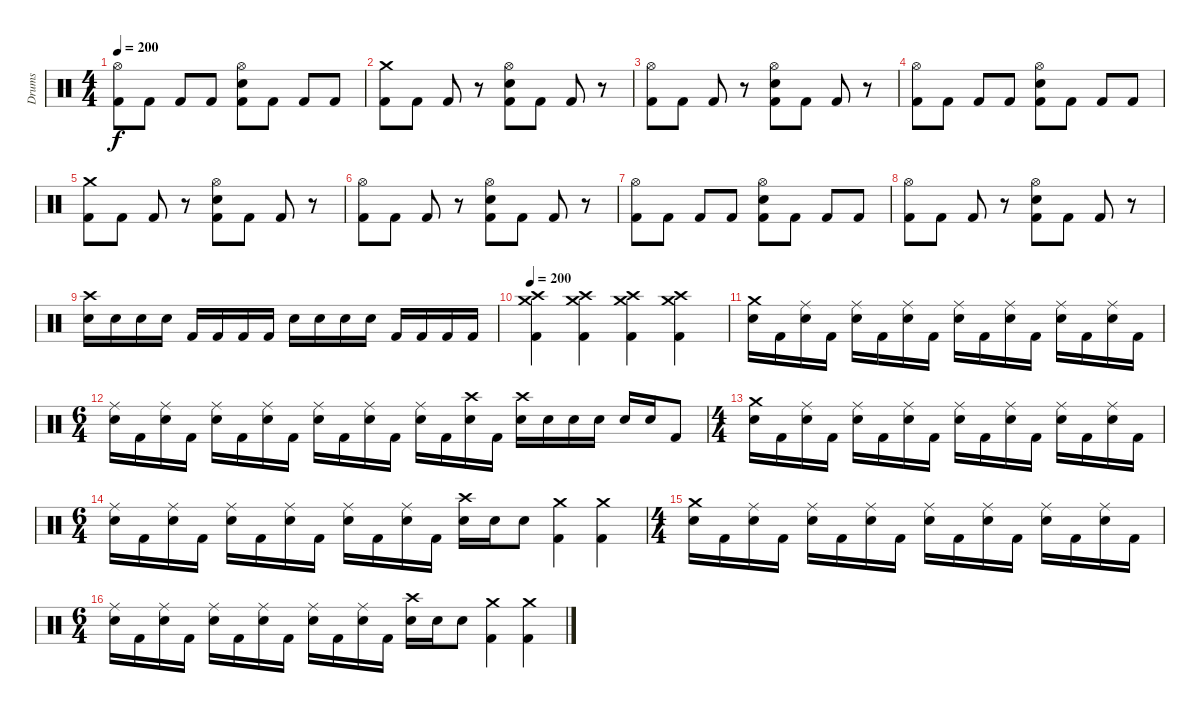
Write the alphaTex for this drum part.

\track ("Drums" "Drums") {instrument percussion}
\staff {score}
\articulation defaults
\ts (4 4)
\tempo 200
\clef neutral
\ks c
("Hi-Hat (open)" "Kick (hit) 2").8{dy f} "Kick (hit) 2".8 "Kick (hit) 2".8 "Kick (hit) 2".8 ("Hi-Hat (open)" "Electric Snare (hit)" "Kick (hit) 2").8 "Kick (hit) 2".8 "Kick (hit) 2".8 "Kick (hit) 2".8 |
("Crash medium (hit)" "Kick (hit) 2").8 "Kick (hit) 2".8 "Kick (hit) 2".8 r.8 ("Hi-Hat (open)" "Electric Snare (hit)" "Kick (hit) 2").8 "Kick (hit) 2".8 "Kick (hit) 2".8 r.8 |
("Hi-Hat (open)" "Kick (hit) 2").8 "Kick (hit) 2".8 "Kick (hit) 2".8 r.8 ("Hi-Hat (open)" "Electric Snare (hit)" "Kick (hit) 2").8 "Kick (hit) 2".8 "Kick (hit) 2".8 r.8 |
("Hi-Hat (open)" "Kick (hit) 2").8 "Kick (hit) 2".8 "Kick (hit) 2".8 "Kick (hit) 2".8 ("Hi-Hat (open)" "Electric Snare (hit)" "Kick (hit) 2").8 "Kick (hit) 2".8 "Kick (hit) 2".8 "Kick (hit) 2".8 |
("Crash medium (hit)" "Kick (hit) 2").8 "Kick (hit) 2".8 "Kick (hit) 2".8 r.8 ("Hi-Hat (open)" "Electric Snare (hit)" "Kick (hit) 2").8 "Kick (hit) 2".8 "Kick (hit) 2".8 r.8 |
("Hi-Hat (open)" "Kick (hit) 2").8 "Kick (hit) 2".8 "Kick (hit) 2".8 r.8 ("Hi-Hat (open)" "Electric Snare (hit)" "Kick (hit) 2").8 "Kick (hit) 2".8 "Kick (hit) 2".8 r.8 |
("Hi-Hat (open)" "Kick (hit) 2").8 "Kick (hit) 2".8 "Kick (hit) 2".8 "Kick (hit) 2".8 ("Hi-Hat (open)" "Electric Snare (hit)" "Kick (hit) 2").8 "Kick (hit) 2".8 "Kick (hit) 2".8 "Kick (hit) 2".8 |
("Hi-Hat (open)" "Kick (hit) 2").8 "Kick (hit) 2".8 "Kick (hit) 2".8 r.8 ("Hi-Hat (open)" "Electric Snare (hit)" "Kick (hit) 2").8 "Kick (hit) 2".8 "Kick (hit) 2".8 r.8 |
("Crash high (hit)" "Electric Snare (hit)").16 "Electric Snare (hit)".16 "Electric Snare (hit)".16 "Electric Snare (hit)".16 "Kick (hit) 2".16 "Kick (hit) 2".16 "Kick (hit) 2".16 "Kick (hit) 2".16 "Electric Snare (hit)".16 "Electric Snare (hit)".16 "Electric Snare (hit)".16 "Electric Snare (hit)".16 "Kick (hit) 2".16 "Kick (hit) 2".16 "Kick (hit) 2".16 "Kick (hit) 2".16 |
\tempo 200
("Crash high (hit)" "Crash medium (hit)" "Kick (hit) 2").4 ("Crash high (hit)" "Crash medium (hit)" "Kick (hit) 2").4 ("Crash high (hit)" "Crash medium (hit)" "Kick (hit) 2").4 ("Crash high (hit)" "Crash medium (hit)" "Kick (hit) 2").4 |
\section ("" "")
("Crash medium (hit)" "Electric Snare (hit)").16 "Kick (hit) 2".16 ("Ride (middle)" "Electric Snare (hit)").16 "Kick (hit) 2".16 ("Ride (middle)" "Electric Snare (hit)").16 "Kick (hit) 2".16 ("Ride (middle)" "Electric Snare (hit)").16 "Kick (hit) 2".16 ("Ride (middle)" "Electric Snare (hit)").16 "Kick (hit) 2".16 ("Ride (middle)" "Electric Snare (hit)").16 "Kick (hit) 2".16 ("Ride (middle)" "Electric Snare (hit)").16 "Kick (hit) 2".16 ("Ride (middle)" "Electric Snare (hit)").16 "Kick (hit) 2".16 |
\ts (6 4)
("Ride (middle)" "Electric Snare (hit)").16 "Kick (hit) 2".16 ("Ride (middle)" "Electric Snare (hit)").16 "Kick (hit) 2".16 ("Ride (middle)" "Electric Snare (hit)").16 "Kick (hit) 2".16 ("Ride (middle)" "Electric Snare (hit)").16 "Kick (hit) 2".16 ("Ride (middle)" "Electric Snare (hit)").16 "Kick (hit) 2".16 ("Ride (middle)" "Electric Snare (hit)").16 "Kick (hit) 2".16 ("Ride (middle)" "Electric Snare (hit)").16 "Kick (hit) 2".16 ("Crash high (hit)" "Electric Snare (hit)").16 "Kick (hit) 2".16 ("Crash high (hit)" "Electric Snare (hit)").16 "Electric Snare (hit)".16 "Electric Snare (hit)".16 "Electric Snare (hit)".16 "Electric Snare (hit)".16 "Electric Snare (hit)".16 "Kick (hit) 2".8 |
\ts (4 4)
("Crash medium (hit)" "Electric Snare (hit)").16 "Kick (hit) 2".16 ("Ride (middle)" "Electric Snare (hit)").16 "Kick (hit) 2".16 ("Ride (middle)" "Electric Snare (hit)").16 "Kick (hit) 2".16 ("Ride (middle)" "Electric Snare (hit)").16 "Kick (hit) 2".16 ("Ride (middle)" "Electric Snare (hit)").16 "Kick (hit) 2".16 ("Ride (middle)" "Electric Snare (hit)").16 "Kick (hit) 2".16 ("Ride (middle)" "Electric Snare (hit)").16 "Kick (hit) 2".16 ("Ride (middle)" "Electric Snare (hit)").16 "Kick (hit) 2".16 |
\ts (6 4)
("Ride (middle)" "Electric Snare (hit)").16 "Kick (hit) 2".16 ("Ride (middle)" "Electric Snare (hit)").16 "Kick (hit) 2".16 ("Ride (middle)" "Electric Snare (hit)").16 "Kick (hit) 2".16 ("Ride (middle)" "Electric Snare (hit)").16 "Kick (hit) 2".16 ("Ride (middle)" "Electric Snare (hit)").16 "Kick (hit) 2".16 ("Ride (middle)" "Electric Snare (hit)").16 "Kick (hit) 2".16 ("Crash high (hit)" "Electric Snare (hit)").16 "Electric Snare (hit)".16 "Electric Snare (hit)".8 ("Crash medium (hit)" "Kick (hit) 2").4 ("Crash medium (hit)" "Kick (hit) 2").4 |
\ts (4 4)
("Crash medium (hit)" "Electric Snare (hit)").16 "Kick (hit) 2".16 ("Ride (middle)" "Electric Snare (hit)").16 "Kick (hit) 2".16 ("Ride (middle)" "Electric Snare (hit)").16 "Kick (hit) 2".16 ("Ride (middle)" "Electric Snare (hit)").16 "Kick (hit) 2".16 ("Ride (middle)" "Electric Snare (hit)").16 "Kick (hit) 2".16 ("Ride (middle)" "Electric Snare (hit)").16 "Kick (hit) 2".16 ("Ride (middle)" "Electric Snare (hit)").16 "Kick (hit) 2".16 ("Ride (middle)" "Electric Snare (hit)").16 "Kick (hit) 2".16 |
\ts (6 4)
("Ride (middle)" "Electric Snare (hit)").16 "Kick (hit) 2".16 ("Ride (middle)" "Electric Snare (hit)").16 "Kick (hit) 2".16 ("Ride (middle)" "Electric Snare (hit)").16 "Kick (hit) 2".16 ("Ride (middle)" "Electric Snare (hit)").16 "Kick (hit) 2".16 ("Ride (middle)" "Electric Snare (hit)").16 "Kick (hit) 2".16 ("Ride (middle)" "Electric Snare (hit)").16 "Kick (hit) 2".16 ("Crash high (hit)" "Electric Snare (hit)").16 "Electric Snare (hit)".16 "Electric Snare (hit)".8 ("Crash medium (hit)" "Kick (hit) 2").4 ("Crash medium (hit)" "Kick (hit) 2").4
